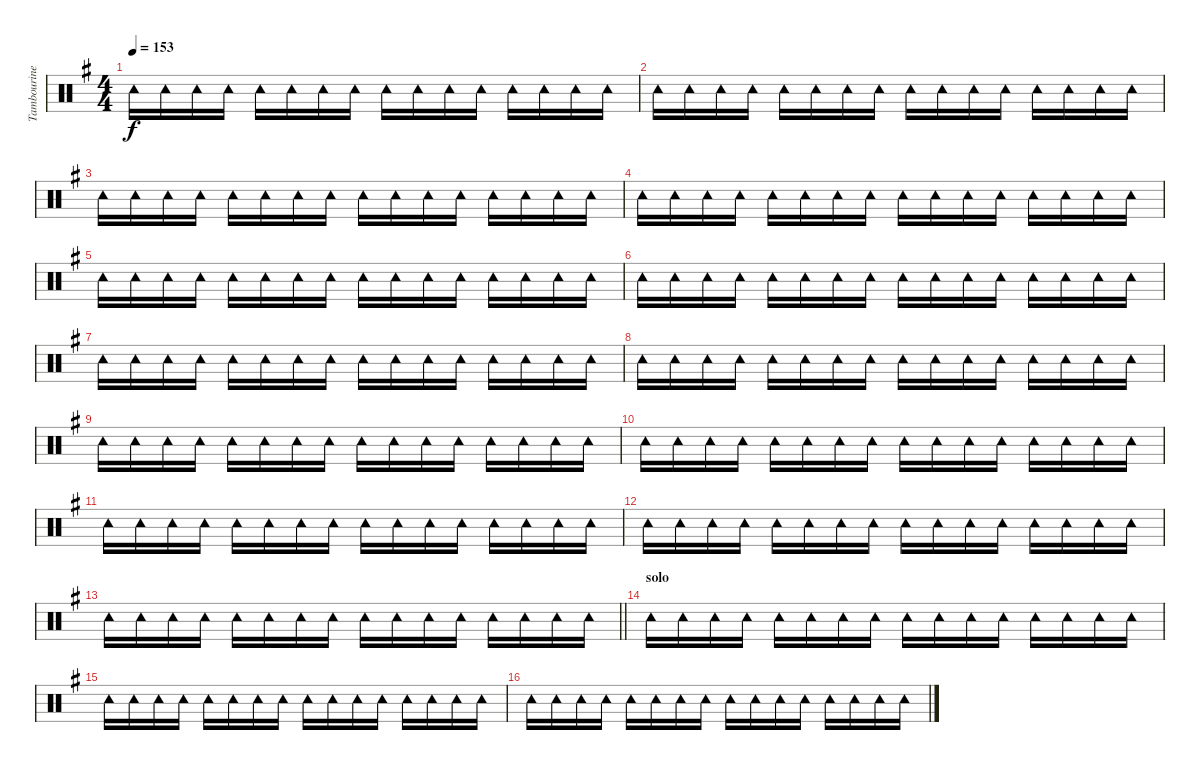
\track ("Tambourine" "Tambourine") {instrument percussion}
\staff {score}
\articulation defaults
\ts (4 4)
\tempo 153
\clef neutral
\ks g "Tambourine (hit)".16{dy f} "Tambourine (hit)".16 "Tambourine (hit)".16 "Tambourine (hit)".16 "Tambourine (hit)".16 "Tambourine (hit)".16 "Tambourine (hit)".16 "Tambourine (hit)".16 "Tambourine (hit)".16 "Tambourine (hit)".16 "Tambourine (hit)".16 "Tambourine (hit)".16 "Tambourine (hit)".16 "Tambourine (hit)".16 "Tambourine (hit)".16 "Tambourine (hit)".16
|
"Tambourine (hit)".16 "Tambourine (hit)".16 "Tambourine (hit)".16 "Tambourine (hit)".16 "Tambourine (hit)".16 "Tambourine (hit)".16 "Tambourine (hit)".16 "Tambourine (hit)".16 "Tambourine (hit)".16 "Tambourine (hit)".16 "Tambourine (hit)".16 "Tambourine (hit)".16 "Tambourine (hit)".16 "Tambourine (hit)".16 "Tambourine (hit)".16 "Tambourine (hit)".16 |
"Tambourine (hit)".16 "Tambourine (hit)".16 "Tambourine (hit)".16 "Tambourine (hit)".16 "Tambourine (hit)".16 "Tambourine (hit)".16 "Tambourine (hit)".16 "Tambourine (hit)".16 "Tambourine (hit)".16 "Tambourine (hit)".16 "Tambourine (hit)".16 "Tambourine (hit)".16 "Tambourine (hit)".16 "Tambourine (hit)".16 "Tambourine (hit)".16 "Tambourine (hit)".16 |
"Tambourine (hit)".16 "Tambourine (hit)".16 "Tambourine (hit)".16 "Tambourine (hit)".16 "Tambourine (hit)".16 "Tambourine (hit)".16 "Tambourine (hit)".16 "Tambourine (hit)".16 "Tambourine (hit)".16 "Tambourine (hit)".16 "Tambourine (hit)".16 "Tambourine (hit)".16 "Tambourine (hit)".16 "Tambourine (hit)".16 "Tambourine (hit)".16 "Tambourine (hit)".16 |
"Tambourine (hit)".16 "Tambourine (hit)".16 "Tambourine (hit)".16 "Tambourine (hit)".16 "Tambourine (hit)".16 "Tambourine (hit)".16 "Tambourine (hit)".16 "Tambourine (hit)".16 "Tambourine (hit)".16 "Tambourine (hit)".16 "Tambourine (hit)".16 "Tambourine (hit)".16 "Tambourine (hit)".16 "Tambourine (hit)".16 "Tambourine (hit)".16 "Tambourine (hit)".16 |
"Tambourine (hit)".16 "Tambourine (hit)".16 "Tambourine (hit)".16 "Tambourine (hit)".16 "Tambourine (hit)".16 "Tambourine (hit)".16 "Tambourine (hit)".16 "Tambourine (hit)".16 "Tambourine (hit)".16 "Tambourine (hit)".16 "Tambourine (hit)".16 "Tambourine (hit)".16 "Tambourine (hit)".16 "Tambourine (hit)".16 "Tambourine (hit)".16 "Tambourine (hit)".16 |
"Tambourine (hit)".16 "Tambourine (hit)".16 "Tambourine (hit)".16 "Tambourine (hit)".16 "Tambourine (hit)".16 "Tambourine (hit)".16 "Tambourine (hit)".16 "Tambourine (hit)".16 "Tambourine (hit)".16 "Tambourine (hit)".16 "Tambourine (hit)".16 "Tambourine (hit)".16 "Tambourine (hit)".16 "Tambourine (hit)".16 "Tambourine (hit)".16 "Tambourine (hit)".16 |
"Tambourine (hit)".16 "Tambourine (hit)".16 "Tambourine (hit)".16 "Tambourine (hit)".16 "Tambourine (hit)".16 "Tambourine (hit)".16 "Tambourine (hit)".16 "Tambourine (hit)".16 "Tambourine (hit)".16 "Tambourine (hit)".16 "Tambourine (hit)".16 "Tambourine (hit)".16 "Tambourine (hit)".16 "Tambourine (hit)".16 "Tambourine (hit)".16 "Tambourine (hit)".16 |
"Tambourine (hit)".16 "Tambourine (hit)".16 "Tambourine (hit)".16 "Tambourine (hit)".16 "Tambourine (hit)".16 "Tambourine (hit)".16 "Tambourine (hit)".16 "Tambourine (hit)".16 "Tambourine (hit)".16 "Tambourine (hit)".16 "Tambourine (hit)".16 "Tambourine (hit)".16 "Tambourine (hit)".16 "Tambourine (hit)".16 "Tambourine (hit)".16 "Tambourine (hit)".16 |
"Tambourine (hit)".16 "Tambourine (hit)".16 "Tambourine (hit)".16 "Tambourine (hit)".16 "Tambourine (hit)".16 "Tambourine (hit)".16 "Tambourine (hit)".16 "Tambourine (hit)".16 "Tambourine (hit)".16 "Tambourine (hit)".16 "Tambourine (hit)".16 "Tambourine (hit)".16 "Tambourine (hit)".16 "Tambourine (hit)".16 "Tambourine (hit)".16 "Tambourine (hit)".16 |
"Tambourine (hit)".16 "Tambourine (hit)".16 "Tambourine (hit)".16 "Tambourine (hit)".16 "Tambourine (hit)".16 "Tambourine (hit)".16 "Tambourine (hit)".16 "Tambourine (hit)".16 "Tambourine (hit)".16 "Tambourine (hit)".16 "Tambourine (hit)".16 "Tambourine (hit)".16 "Tambourine (hit)".16 "Tambourine (hit)".16 "Tambourine (hit)".16 "Tambourine (hit)".16 |
"Tambourine (hit)".16 "Tambourine (hit)".16 "Tambourine (hit)".16 "Tambourine (hit)".16 "Tambourine (hit)".16 "Tambourine (hit)".16 "Tambourine (hit)".16 "Tambourine (hit)".16 "Tambourine (hit)".16 "Tambourine (hit)".16 "Tambourine (hit)".16 "Tambourine (hit)".16 "Tambourine (hit)".16 "Tambourine (hit)".16 "Tambourine (hit)".16 "Tambourine (hit)".16 |
\barLineRight lightlight "Tambourine (hit)".16 "Tambourine (hit)".16 "Tambourine (hit)".16 "Tambourine (hit)".16 "Tambourine (hit)".16 "Tambourine (hit)".16 "Tambourine (hit)".16 "Tambourine (hit)".16 "Tambourine (hit)".16 "Tambourine (hit)".16 "Tambourine (hit)".16 "Tambourine (hit)".16 "Tambourine (hit)".16 "Tambourine (hit)".16 "Tambourine (hit)".16 "Tambourine (hit)".16
|
\section ("" "solo")
"Tambourine (hit)".16 "Tambourine (hit)".16 "Tambourine (hit)".16 "Tambourine (hit)".16 "Tambourine (hit)".16 "Tambourine (hit)".16 "Tambourine (hit)".16 "Tambourine (hit)".16 "Tambourine (hit)".16 "Tambourine (hit)".16 "Tambourine (hit)".16 "Tambourine (hit)".16 "Tambourine (hit)".16 "Tambourine (hit)".16 "Tambourine (hit)".16 "Tambourine (hit)".16 |
"Tambourine (hit)".16 "Tambourine (hit)".16 "Tambourine (hit)".16 "Tambourine (hit)".16 "Tambourine (hit)".16 "Tambourine (hit)".16 "Tambourine (hit)".16 "Tambourine (hit)".16 "Tambourine (hit)".16 "Tambourine (hit)".16 "Tambourine (hit)".16 "Tambourine (hit)".16 "Tambourine (hit)".16 "Tambourine (hit)".16 "Tambourine (hit)".16 "Tambourine (hit)".16 |
"Tambourine (hit)".16 "Tambourine (hit)".16 "Tambourine (hit)".16 "Tambourine (hit)".16 "Tambourine (hit)".16 "Tambourine (hit)".16 "Tambourine (hit)".16 "Tambourine (hit)".16 "Tambourine (hit)".16 "Tambourine (hit)".16 "Tambourine (hit)".16 "Tambourine (hit)".16 "Tambourine (hit)".16 "Tambourine (hit)".16 "Tambourine (hit)".16 "Tambourine (hit)".16
